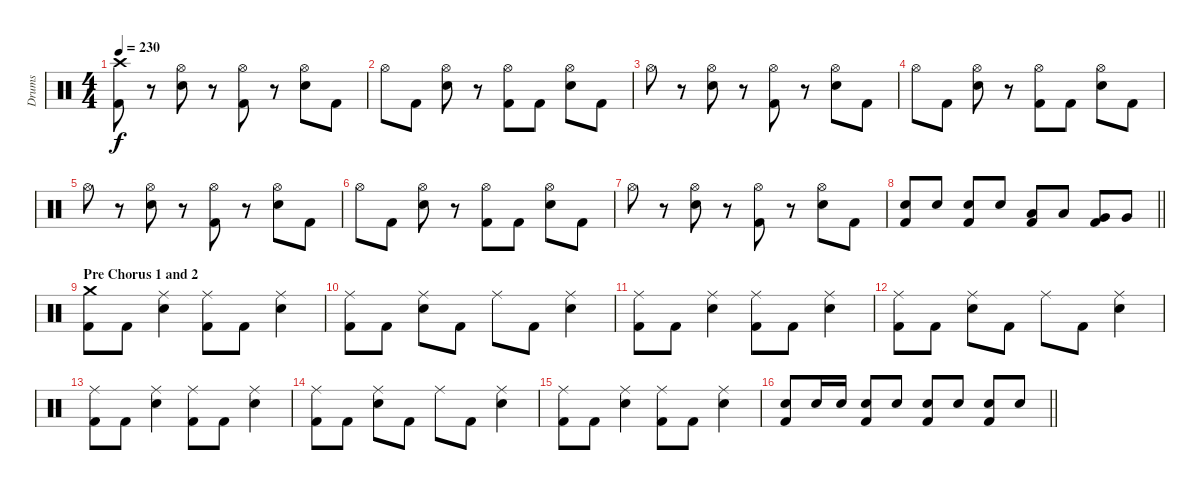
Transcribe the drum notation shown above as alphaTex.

\track ("Drums" "Drums") {instrument percussion}
\staff {score}
\articulation defaults
\ts (4 4)
\tempo 230
\clef neutral
\ks c
("Crash high (hit)" "Kick (hit) 2").8{dy f} r.8 ("Hi-Hat (open)" "Electric Snare (hit)").8 r.8 ("Hi-Hat (open)" "Kick (hit) 2").8 r.8 ("Hi-Hat (open)" "Electric Snare (hit)").8 "Kick (hit) 2".8 |
"Hi-Hat (open)".8 "Kick (hit) 2".8 ("Hi-Hat (open)" "Electric Snare (hit)").8 r.8 ("Hi-Hat (open)" "Kick (hit) 2").8 "Kick (hit) 2".8 ("Hi-Hat (open)" "Electric Snare (hit)").8 "Kick (hit) 2".8 |
"Hi-Hat (open)".8 r.8 ("Hi-Hat (open)" "Electric Snare (hit)").8 r.8 ("Hi-Hat (open)" "Kick (hit) 2").8 r.8 ("Hi-Hat (open)" "Electric Snare (hit)").8 "Kick (hit) 2".8 |
"Hi-Hat (open)".8 "Kick (hit) 2".8 ("Hi-Hat (open)" "Electric Snare (hit)").8 r.8 ("Hi-Hat (open)" "Kick (hit) 2").8 "Kick (hit) 2".8 ("Hi-Hat (open)" "Electric Snare (hit)").8 "Kick (hit) 2".8 |
"Hi-Hat (open)".8 r.8 ("Hi-Hat (open)" "Electric Snare (hit)").8 r.8 ("Hi-Hat (open)" "Kick (hit) 2").8 r.8 ("Hi-Hat (open)" "Electric Snare (hit)").8 "Kick (hit) 2".8 |
"Hi-Hat (open)".8 "Kick (hit) 2".8 ("Hi-Hat (open)" "Electric Snare (hit)").8 r.8 ("Hi-Hat (open)" "Kick (hit) 2").8 "Kick (hit) 2".8 ("Hi-Hat (open)" "Electric Snare (hit)").8 "Kick (hit) 2".8 |
"Hi-Hat (open)".8 r.8 ("Hi-Hat (open)" "Electric Snare (hit)").8 r.8 ("Hi-Hat (open)" "Kick (hit) 2").8 r.8 ("Hi-Hat (open)" "Electric Snare (hit)").8 "Kick (hit) 2".8 |
\barLineRight lightlight
("Electric Snare (hit)" "Kick (hit) 2").8 "Electric Snare (hit)".8 ("Electric Snare (hit)" "Kick (hit) 2").8 "Electric Snare (hit)".8 ("Low Tom (hit)" "Kick (hit) 2").8 "Low Tom (hit)".8 ("Very Low Tom (hit)" "Kick (hit) 2").8 "Very Low Tom (hit)".8 |
\section ("" "Pre Chorus 1 and 2")
("Crash medium (hit)" "Kick (hit) 2").8 "Kick (hit) 2".8 ("Ride (middle)" "Electric Snare (hit)").4 ("Ride (middle)" "Kick (hit) 2").8 "Kick (hit) 2".8 ("Ride (middle)" "Electric Snare (hit)").4 |
("Ride (middle)" "Kick (hit) 2").8 "Kick (hit) 2".8 ("Ride (middle)" "Electric Snare (hit)").8 "Kick (hit) 2".8 "Ride (middle)".8 "Kick (hit) 2".8 ("Ride (middle)" "Electric Snare (hit)").4 |
("Ride (middle)" "Kick (hit) 2").8 "Kick (hit) 2".8 ("Ride (middle)" "Electric Snare (hit)").4 ("Ride (middle)" "Kick (hit) 2").8 "Kick (hit) 2".8 ("Ride (middle)" "Electric Snare (hit)").4 |
("Ride (middle)" "Kick (hit) 2").8 "Kick (hit) 2".8 ("Ride (middle)" "Electric Snare (hit)").8 "Kick (hit) 2".8 "Ride (middle)".8 "Kick (hit) 2".8 ("Ride (middle)" "Electric Snare (hit)").4 |
("Ride (middle)" "Kick (hit) 2").8 "Kick (hit) 2".8 ("Ride (middle)" "Electric Snare (hit)").4 ("Ride (middle)" "Kick (hit) 2").8 "Kick (hit) 2".8 ("Ride (middle)" "Electric Snare (hit)").4 |
("Ride (middle)" "Kick (hit) 2").8 "Kick (hit) 2".8 ("Ride (middle)" "Electric Snare (hit)").8 "Kick (hit) 2".8 "Ride (middle)".8 "Kick (hit) 2".8 ("Ride (middle)" "Electric Snare (hit)").4 |
("Ride (middle)" "Kick (hit) 2").8 "Kick (hit) 2".8 ("Ride (middle)" "Electric Snare (hit)").4 ("Ride (middle)" "Kick (hit) 2").8 "Kick (hit) 2".8 ("Ride (middle)" "Electric Snare (hit)").4 |
\barLineRight lightlight
("Electric Snare (hit)" "Kick (hit) 2").8 "Electric Snare (hit)".16 "Electric Snare (hit)".16 ("Electric Snare (hit)" "Kick (hit) 2").8 "Electric Snare (hit)".8 ("Electric Snare (hit)" "Kick (hit) 2").8 "Electric Snare (hit)".8 ("Electric Snare (hit)" "Kick (hit) 2").8 "Electric Snare (hit)".8
